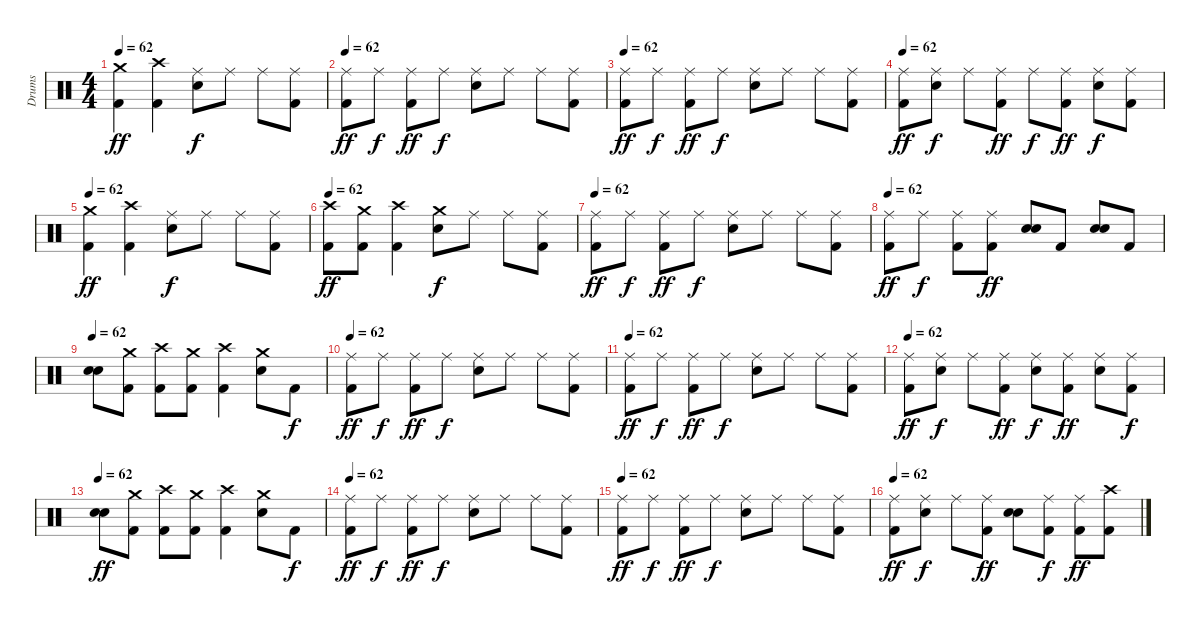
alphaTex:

\track ("Drums" "Drums") {instrument percussion}
\staff {score}
\articulation defaults
\ts (4 4)
\tempo 62
\clef neutral
\ks c
("Crash medium (hit)" "Kick (hit) 2").4{dy ff} ("Crash high (hit)" "Kick (hit) 2").4 ("Electric Snare (hit)" "Ride (middle)").8{dy f} "Ride (middle)".8 "Ride (middle)".8 ("Kick (hit) 2" "Ride (middle)").8 |
\tempo 62
("Ride (middle)" "Kick (hit) 2").8{dy ff} "Ride (middle)".8{dy f} ("Ride (middle)" "Kick (hit) 2").8{dy ff} "Ride (middle)".8{dy f} ("Electric Snare (hit)" "Ride (middle)").8 "Ride (middle)".8 "Ride (middle)".8 ("Kick (hit) 2" "Ride (middle)").8 |
\tempo 62
("Ride (middle)" "Kick (hit) 2").8{dy ff} "Ride (middle)".8{dy f} ("Ride (middle)" "Kick (hit) 2").8{dy ff} "Ride (middle)".8{dy f} ("Electric Snare (hit)" "Ride (middle)").8 "Ride (middle)".8 "Ride (middle)".8 ("Kick (hit) 2" "Ride (middle)").8 |
\tempo 62
("Ride (middle)" "Kick (hit) 2").8{dy ff} ("Electric Snare (hit)" "Ride (middle)").8{dy f} "Ride (middle)".8 ("Kick (hit) 2" "Ride (middle)").8{dy ff} "Ride (middle)".8{dy f} ("Kick (hit) 2" "Ride (middle)").8{dy ff} ("Electric Snare (hit)" "Ride (middle)").8{dy f} ("Kick (hit) 2" "Ride (middle)").8 |
\tempo 62
("Crash medium (hit)" "Kick (hit) 2").4{dy ff} ("Crash high (hit)" "Kick (hit) 2").4 ("Electric Snare (hit)" "Ride (middle)").8{dy f} "Ride (middle)".8 "Ride (middle)".8 ("Kick (hit) 2" "Ride (middle)").8 |
\tempo 62
("Crash high (hit)" "Kick (hit) 2").8{dy ff} ("Crash medium (hit)" "Kick (hit) 2").8 ("Crash high (hit)" "Kick (hit) 2").4 ("Electric Snare (hit)" "Crash medium (hit)").8{dy f} "Ride (middle)".8 "Ride (middle)".8 ("Kick (hit) 2" "Ride (middle)").8 |
\tempo 62
("Kick (hit) 2" "Ride (middle)").8{dy ff} "Ride (middle)".8{dy f} ("Kick (hit) 2" "Ride (middle)").8{dy ff} "Ride (middle)".8{dy f} ("Electric Snare (hit)" "Ride (middle)").8 "Ride (middle)".8 "Ride (middle)".8 ("Kick (hit) 2" "Ride (middle)").8 |
\tempo 62
("Kick (hit) 2" "Ride (middle)").8{dy ff} "Ride (middle)".8{dy f} ("Kick (hit) 2" "Ride (middle)").8 ("Kick (hit) 2" "Ride (middle)").8{dy ff} ("Electric Snare (hit)" "Electric Snare (hit)").8 "Kick (hit) 2".8 ("Electric Snare (hit)" "Electric Snare (hit)").8 "Kick (hit) 2".8 |
\tempo 62
("Electric Snare (hit)" "Electric Snare (hit)").8 ("Crash medium (hit)" "Kick (hit) 2").8 ("Crash high (hit)" "Kick (hit) 2").8 ("Crash medium (hit)" "Kick (hit) 2").8 ("Crash high (hit)" "Kick (hit) 2").4 ("Electric Snare (hit)" "Crash medium (hit)").8 "Kick (hit) 2".8{dy f} |
\tempo 62
("Kick (hit) 2" "Ride (middle)").8{dy ff} "Ride (middle)".8{dy f} ("Kick (hit) 2" "Ride (middle)").8{dy ff} "Ride (middle)".8{dy f} ("Electric Snare (hit)" "Ride (middle)").8 "Ride (middle)".8 "Ride (middle)".8 ("Kick (hit) 2" "Ride (middle)").8 |
\tempo 62
("Kick (hit) 2" "Ride (middle)").8{dy ff} "Ride (middle)".8{dy f} ("Kick (hit) 2" "Ride (middle)").8{dy ff} "Ride (middle)".8{dy f} ("Electric Snare (hit)" "Ride (middle)").8 "Ride (middle)".8 "Ride (middle)".8 ("Kick (hit) 2" "Ride (middle)").8 |
\tempo 62
("Kick (hit) 2" "Ride (middle)").8{dy ff} ("Electric Snare (hit)" "Ride (middle)").8{dy f} "Ride (middle)".8 ("Kick (hit) 2" "Ride (middle)").8{dy ff} ("Electric Snare (hit)" "Ride (middle)").8{dy f} ("Kick (hit) 2" "Ride (middle)").8{dy ff} ("Electric Snare (hit)" "Ride (middle)").8 ("Kick (hit) 2" "Ride (middle)").8{dy f} |
\tempo 62
("Electric Snare (hit)" "Electric Snare (hit)").8{dy ff} ("Crash medium (hit)" "Kick (hit) 2").8 ("Crash high (hit)" "Kick (hit) 2").8 ("Crash medium (hit)" "Kick (hit) 2").8 ("Crash high (hit)" "Kick (hit) 2").4 ("Electric Snare (hit)" "Crash medium (hit)").8 "Kick (hit) 2".8{dy f} |
\tempo 62
("Kick (hit) 2" "Ride (middle)").8{dy ff} "Ride (middle)".8{dy f} ("Kick (hit) 2" "Ride (middle)").8{dy ff} "Ride (middle)".8{dy f} ("Electric Snare (hit)" "Ride (middle)").8 "Ride (middle)".8 "Ride (middle)".8 ("Kick (hit) 2" "Ride (middle)").8 |
\tempo 62
("Kick (hit) 2" "Ride (middle)").8{dy ff} "Ride (middle)".8{dy f} ("Kick (hit) 2" "Ride (middle)").8{dy ff} "Ride (middle)".8{dy f} ("Electric Snare (hit)" "Ride (middle)").8 "Ride (middle)".8 "Ride (middle)".8 ("Kick (hit) 2" "Ride (middle)").8 |
\tempo 62
("Kick (hit) 2" "Ride (middle)").8{dy ff} ("Electric Snare (hit)" "Ride (middle)").8{dy f} "Ride (middle)".8 ("Kick (hit) 2" "Ride (middle)").8{dy ff} ("Electric Snare (hit)" "Electric Snare (hit)").8 ("Kick (hit) 2" "Ride (middle)").8{dy f} ("Kick (hit) 2" "Ride (middle)").8{dy ff} ("Crash high (hit)" "Kick (hit) 2").8
